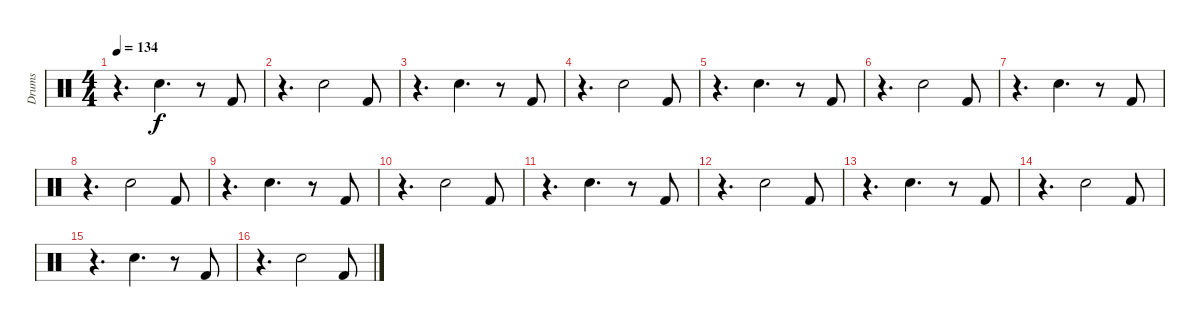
\track ("Drums" "Drums") {instrument percussion}
\staff {score}
\articulation defaults
\ts (4 4)
\tempo 134
\clef neutral
\ks c
r.4{d dy f} "Electric Snare (hit)".4{d} r.8 "Kick (hit) 2".8 |
r.4{d} "Electric Snare (hit)".2 "Kick (hit) 2".8 |
r.4{d} "Electric Snare (hit)".4{d} r.8 "Kick (hit) 2".8 |
r.4{d} "Electric Snare (hit)".2 "Kick (hit) 2".8 |
r.4{d} "Electric Snare (hit)".4{d} r.8 "Kick (hit) 2".8 |
r.4{d} "Electric Snare (hit)".2 "Kick (hit) 2".8 |
r.4{d} "Electric Snare (hit)".4{d} r.8 "Kick (hit) 2".8 |
r.4{d} "Electric Snare (hit)".2 "Kick (hit) 2".8 |
r.4{d} "Electric Snare (hit)".4{d} r.8 "Kick (hit) 2".8 |
r.4{d} "Electric Snare (hit)".2 "Kick (hit) 2".8 |
r.4{d} "Electric Snare (hit)".4{d} r.8 "Kick (hit) 2".8 |
r.4{d} "Electric Snare (hit)".2 "Kick (hit) 2".8 |
r.4{d} "Electric Snare (hit)".4{d} r.8 "Kick (hit) 2".8 |
r.4{d} "Electric Snare (hit)".2 "Kick (hit) 2".8 |
r.4{d} "Electric Snare (hit)".4{d} r.8 "Kick (hit) 2".8 |
r.4{d} "Electric Snare (hit)".2 "Kick (hit) 2".8
